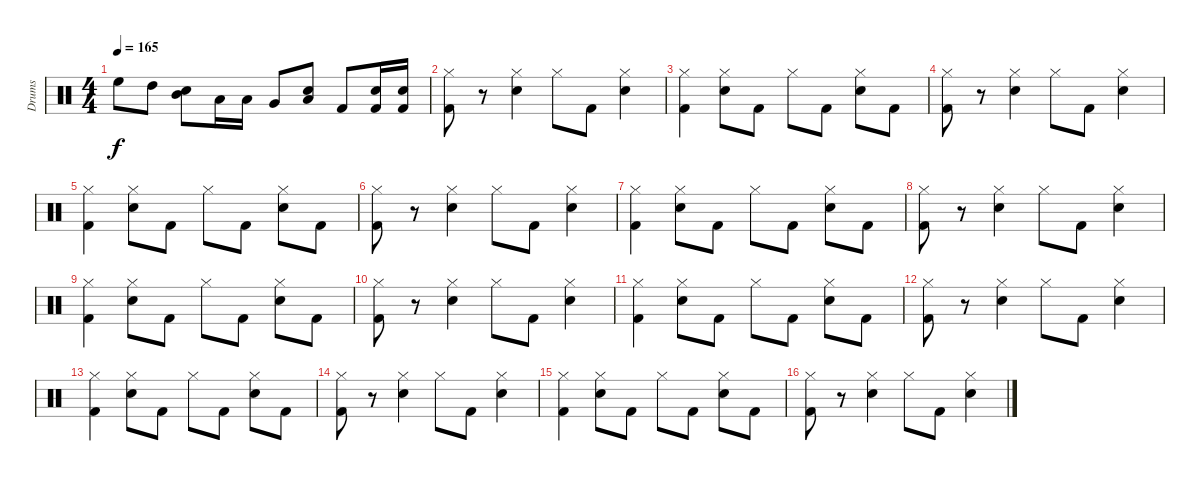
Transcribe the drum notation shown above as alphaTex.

\track ("Drums" "Drums") {instrument percussion}
\staff {score}
\articulation defaults
\ts (4 4)
\tempo 165
\clef neutral
\ks c "High Floor Tom (hit)".8{dy f} "High Tom (hit)".8
("Mid Tom (hit)" "Snare (hit) 2").8 "Low Tom (hit)".16 "Low Tom (hit)".16 "Very Low Tom (hit)".8 ("Low Floor Tom (hit)" "Snare (hit) 2").8 "Kick (hit) 2".8 ("Kick (hit) 2" "Snare (hit) 2").16 ("Kick (hit) 2" "Snare (hit) 2").16 |
("Hi-Hat (closed)" "Kick (hit) 2").8 r.8 ("Hi-Hat (closed)" "Snare (hit) 2").4 "Hi-Hat (closed)".8 "Kick (hit) 2".8 ("Hi-Hat (closed)" "Snare (hit) 2").4 |
("Hi-Hat (closed)" "Kick (hit) 2").4 ("Hi-Hat (closed)" "Snare (hit) 2").8 "Kick (hit) 2".8 "Hi-Hat (closed)".8 "Kick (hit) 2".8 ("Hi-Hat (closed)" "Snare (hit) 2").8 "Kick (hit) 2".8 |
("Hi-Hat (closed)" "Kick (hit) 2").8 r.8 ("Hi-Hat (closed)" "Snare (hit) 2").4 "Hi-Hat (closed)".8 "Kick (hit) 2".8 ("Hi-Hat (closed)" "Snare (hit) 2").4 |
("Hi-Hat (closed)" "Kick (hit) 2").4 ("Hi-Hat (closed)" "Snare (hit) 2").8 "Kick (hit) 2".8 "Hi-Hat (closed)".8 "Kick (hit) 2".8 ("Hi-Hat (closed)" "Snare (hit) 2").8 "Kick (hit) 2".8 |
("Hi-Hat (closed)" "Kick (hit) 2").8 r.8 ("Hi-Hat (closed)" "Snare (hit) 2").4 "Hi-Hat (closed)".8 "Kick (hit) 2".8 ("Hi-Hat (closed)" "Snare (hit) 2").4 |
("Hi-Hat (closed)" "Kick (hit) 2").4 ("Hi-Hat (closed)" "Snare (hit) 2").8 "Kick (hit) 2".8 "Hi-Hat (closed)".8 "Kick (hit) 2".8 ("Hi-Hat (closed)" "Snare (hit) 2").8 "Kick (hit) 2".8 |
("Hi-Hat (closed)" "Kick (hit) 2").8 r.8 ("Hi-Hat (closed)" "Snare (hit) 2").4 "Hi-Hat (closed)".8 "Kick (hit) 2".8 ("Hi-Hat (closed)" "Snare (hit) 2").4 |
("Hi-Hat (closed)" "Kick (hit) 2").4 ("Hi-Hat (closed)" "Snare (hit) 2").8 "Kick (hit) 2".8 "Hi-Hat (closed)".8 "Kick (hit) 2".8 ("Hi-Hat (closed)" "Snare (hit) 2").8 "Kick (hit) 2".8 |
("Hi-Hat (closed)" "Kick (hit) 2").8 r.8 ("Hi-Hat (closed)" "Snare (hit) 2").4 "Hi-Hat (closed)".8 "Kick (hit) 2".8 ("Hi-Hat (closed)" "Snare (hit) 2").4 |
("Hi-Hat (closed)" "Kick (hit) 2").4 ("Hi-Hat (closed)" "Snare (hit) 2").8 "Kick (hit) 2".8 "Hi-Hat (closed)".8 "Kick (hit) 2".8 ("Hi-Hat (closed)" "Snare (hit) 2").8 "Kick (hit) 2".8 |
("Hi-Hat (closed)" "Kick (hit) 2").8 r.8 ("Hi-Hat (closed)" "Snare (hit) 2").4 "Hi-Hat (closed)".8 "Kick (hit) 2".8 ("Hi-Hat (closed)" "Snare (hit) 2").4 |
("Hi-Hat (closed)" "Kick (hit) 2").4 ("Hi-Hat (closed)" "Snare (hit) 2").8 "Kick (hit) 2".8 "Hi-Hat (closed)".8 "Kick (hit) 2".8 ("Hi-Hat (closed)" "Snare (hit) 2").8 "Kick (hit) 2".8 |
("Hi-Hat (closed)" "Kick (hit) 2").8 r.8 ("Hi-Hat (closed)" "Snare (hit) 2").4 "Hi-Hat (closed)".8 "Kick (hit) 2".8 ("Hi-Hat (closed)" "Snare (hit) 2").4 |
("Hi-Hat (closed)" "Kick (hit) 2").4 ("Hi-Hat (closed)" "Snare (hit) 2").8 "Kick (hit) 2".8 "Hi-Hat (closed)".8 "Kick (hit) 2".8 ("Hi-Hat (closed)" "Snare (hit) 2").8 "Kick (hit) 2".8 |
("Hi-Hat (closed)" "Kick (hit) 2").8 r.8 ("Hi-Hat (closed)" "Snare (hit) 2").4 "Hi-Hat (closed)".8 "Kick (hit) 2".8 ("Hi-Hat (closed)" "Snare (hit) 2").4
